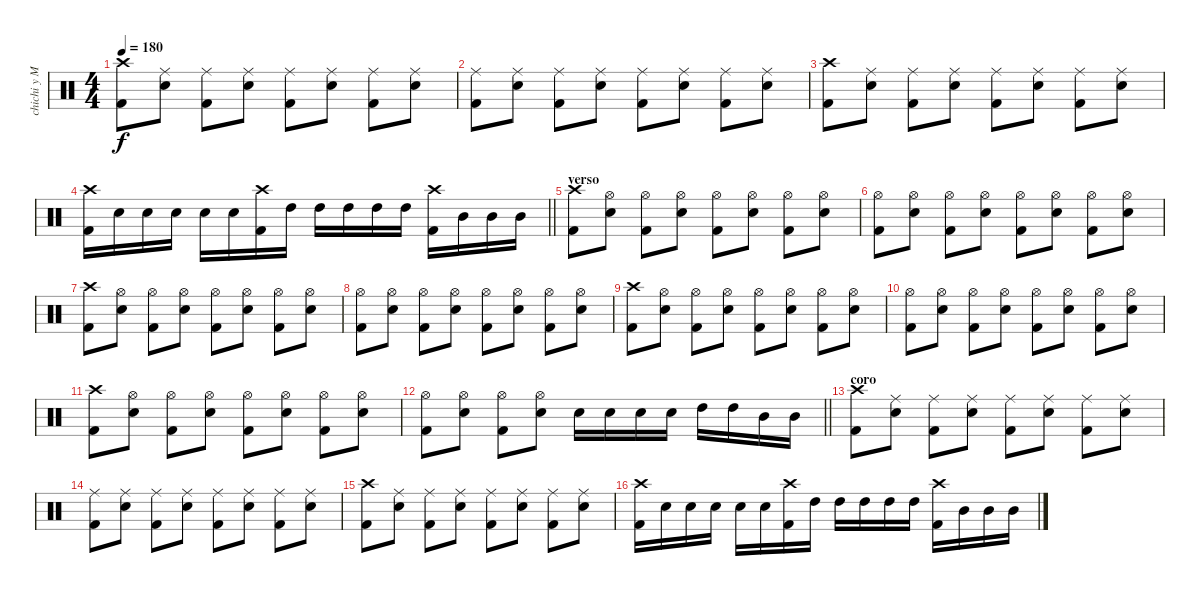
\track ("chichi y MAlejo" "chichi y M") {instrument percussion}
\staff {score}
\articulation defaults
\ts (4 4)
\tempo 180
\clef neutral
\ks c
("Crash high (hit)" "Kick (hit) 2").8{dy f} ("Ride (middle)" "Snare (hit) 2").8 ("Ride (middle)" "Kick (hit) 2").8 ("Ride (middle)" "Snare (hit) 2").8 ("Ride (middle)" "Kick (hit) 2").8 ("Ride (middle)" "Snare (hit) 2").8 ("Ride (middle)" "Kick (hit) 2").8 ("Ride (middle)" "Snare (hit) 2").8 |
("Ride (middle)" "Kick (hit) 2").8 ("Ride (middle)" "Snare (hit) 2").8 ("Ride (middle)" "Kick (hit) 2").8 ("Ride (middle)" "Snare (hit) 2").8 ("Ride (middle)" "Kick (hit) 2").8 ("Ride (middle)" "Snare (hit) 2").8 ("Ride (middle)" "Kick (hit) 2").8 ("Ride (middle)" "Snare (hit) 2").8 |
("Crash high (hit)" "Kick (hit) 2").8 ("Ride (middle)" "Snare (hit) 2").8 ("Ride (middle)" "Kick (hit) 2").8 ("Ride (middle)" "Snare (hit) 2").8 ("Ride (middle)" "Kick (hit) 2").8 ("Ride (middle)" "Snare (hit) 2").8 ("Ride (middle)" "Kick (hit) 2").8 ("Ride (middle)" "Snare (hit) 2").8 |
\barLineRight lightlight
("Crash high (hit)" "Kick (hit) 2").16 "Snare (hit) 2".16 "Snare (hit) 2".16 "Snare (hit) 2".16 "Snare (hit) 2".16 "Snare (hit) 2".16 ("Crash high (hit)" "Kick (hit) 2").16 "High Tom (hit)".16 "High Tom (hit)".16 "High Tom (hit)".16 "High Tom (hit)".16 "High Tom (hit)".16 ("Crash high (hit)" "Kick (hit) 2").16 "Mid Tom (hit)".16 "Mid Tom (hit)".16 "Mid Tom (hit)".16 |
\section ("" "verso")
("Crash high (hit)" "Kick (hit) 2").8 ("Hi-Hat (open)" "Snare (hit) 2").8 ("Hi-Hat (open)" "Kick (hit) 2").8 ("Hi-Hat (open)" "Snare (hit) 2").8 ("Hi-Hat (open)" "Kick (hit) 2").8 ("Hi-Hat (open)" "Snare (hit) 2").8 ("Hi-Hat (open)" "Kick (hit) 2").8 ("Hi-Hat (open)" "Snare (hit) 2").8 |
("Hi-Hat (open)" "Kick (hit) 2").8 ("Hi-Hat (open)" "Snare (hit) 2").8 ("Hi-Hat (open)" "Kick (hit) 2").8 ("Hi-Hat (open)" "Snare (hit) 2").8 ("Hi-Hat (open)" "Kick (hit) 2").8 ("Hi-Hat (open)" "Snare (hit) 2").8 ("Hi-Hat (open)" "Kick (hit) 2").8 ("Hi-Hat (open)" "Snare (hit) 2").8 |
("Crash high (hit)" "Kick (hit) 2").8 ("Hi-Hat (open)" "Snare (hit) 2").8 ("Hi-Hat (open)" "Kick (hit) 2").8 ("Hi-Hat (open)" "Snare (hit) 2").8 ("Hi-Hat (open)" "Kick (hit) 2").8 ("Hi-Hat (open)" "Snare (hit) 2").8 ("Hi-Hat (open)" "Kick (hit) 2").8 ("Hi-Hat (open)" "Snare (hit) 2").8 |
("Hi-Hat (open)" "Kick (hit) 2").8 ("Hi-Hat (open)" "Snare (hit) 2").8 ("Hi-Hat (open)" "Kick (hit) 2").8 ("Hi-Hat (open)" "Snare (hit) 2").8 ("Hi-Hat (open)" "Kick (hit) 2").8 ("Hi-Hat (open)" "Snare (hit) 2").8 ("Hi-Hat (open)" "Kick (hit) 2").8 ("Hi-Hat (open)" "Snare (hit) 2").8 |
("Crash high (hit)" "Kick (hit) 2").8 ("Hi-Hat (open)" "Snare (hit) 2").8 ("Hi-Hat (open)" "Kick (hit) 2").8 ("Hi-Hat (open)" "Snare (hit) 2").8 ("Hi-Hat (open)" "Kick (hit) 2").8 ("Hi-Hat (open)" "Snare (hit) 2").8 ("Hi-Hat (open)" "Kick (hit) 2").8 ("Hi-Hat (open)" "Snare (hit) 2").8 |
("Hi-Hat (open)" "Kick (hit) 2").8 ("Hi-Hat (open)" "Snare (hit) 2").8 ("Hi-Hat (open)" "Kick (hit) 2").8 ("Hi-Hat (open)" "Snare (hit) 2").8 ("Hi-Hat (open)" "Kick (hit) 2").8 ("Hi-Hat (open)" "Snare (hit) 2").8 ("Hi-Hat (open)" "Kick (hit) 2").8 ("Hi-Hat (open)" "Snare (hit) 2").8 |
("Crash high (hit)" "Kick (hit) 2").8 ("Hi-Hat (open)" "Snare (hit) 2").8 ("Hi-Hat (open)" "Kick (hit) 2").8 ("Hi-Hat (open)" "Snare (hit) 2").8 ("Hi-Hat (open)" "Kick (hit) 2").8 ("Hi-Hat (open)" "Snare (hit) 2").8 ("Hi-Hat (open)" "Kick (hit) 2").8 ("Hi-Hat (open)" "Snare (hit) 2").8 |
\barLineRight lightlight
("Hi-Hat (open)" "Kick (hit) 2").8 ("Hi-Hat (open)" "Snare (hit) 2").8 ("Hi-Hat (open)" "Kick (hit) 2").8 ("Hi-Hat (open)" "Snare (hit) 2").8 "Snare (hit) 2".16 "Snare (hit) 2".16 "Snare (hit) 2".16 "Snare (hit) 2".16 "High Tom (hit)".16 "High Tom (hit)".16 "Mid Tom (hit)".16 "Mid Tom (hit)".16 |
\section ("" "coro")
("Crash high (hit)" "Kick (hit) 2").8 ("Ride (middle)" "Snare (hit) 2").8 ("Ride (middle)" "Kick (hit) 2").8 ("Ride (middle)" "Snare (hit) 2").8 ("Ride (middle)" "Kick (hit) 2").8 ("Ride (middle)" "Snare (hit) 2").8 ("Ride (middle)" "Kick (hit) 2").8 ("Ride (middle)" "Snare (hit) 2").8 |
("Ride (middle)" "Kick (hit) 2").8 ("Ride (middle)" "Snare (hit) 2").8 ("Ride (middle)" "Kick (hit) 2").8 ("Ride (middle)" "Snare (hit) 2").8 ("Ride (middle)" "Kick (hit) 2").8 ("Ride (middle)" "Snare (hit) 2").8 ("Ride (middle)" "Kick (hit) 2").8 ("Ride (middle)" "Snare (hit) 2").8 |
("Crash high (hit)" "Kick (hit) 2").8 ("Ride (middle)" "Snare (hit) 2").8 ("Ride (middle)" "Kick (hit) 2").8 ("Ride (middle)" "Snare (hit) 2").8 ("Ride (middle)" "Kick (hit) 2").8 ("Ride (middle)" "Snare (hit) 2").8 ("Ride (middle)" "Kick (hit) 2").8 ("Ride (middle)" "Snare (hit) 2").8 |
("Crash high (hit)" "Kick (hit) 2").16 "Snare (hit) 2".16 "Snare (hit) 2".16 "Snare (hit) 2".16 "Snare (hit) 2".16 "Snare (hit) 2".16 ("Crash high (hit)" "Kick (hit) 2").16 "High Tom (hit)".16 "High Tom (hit)".16 "High Tom (hit)".16 "High Tom (hit)".16 "High Tom (hit)".16 ("Crash high (hit)" "Kick (hit) 2").16 "Mid Tom (hit)".16 "Mid Tom (hit)".16 "Mid Tom (hit)".16
